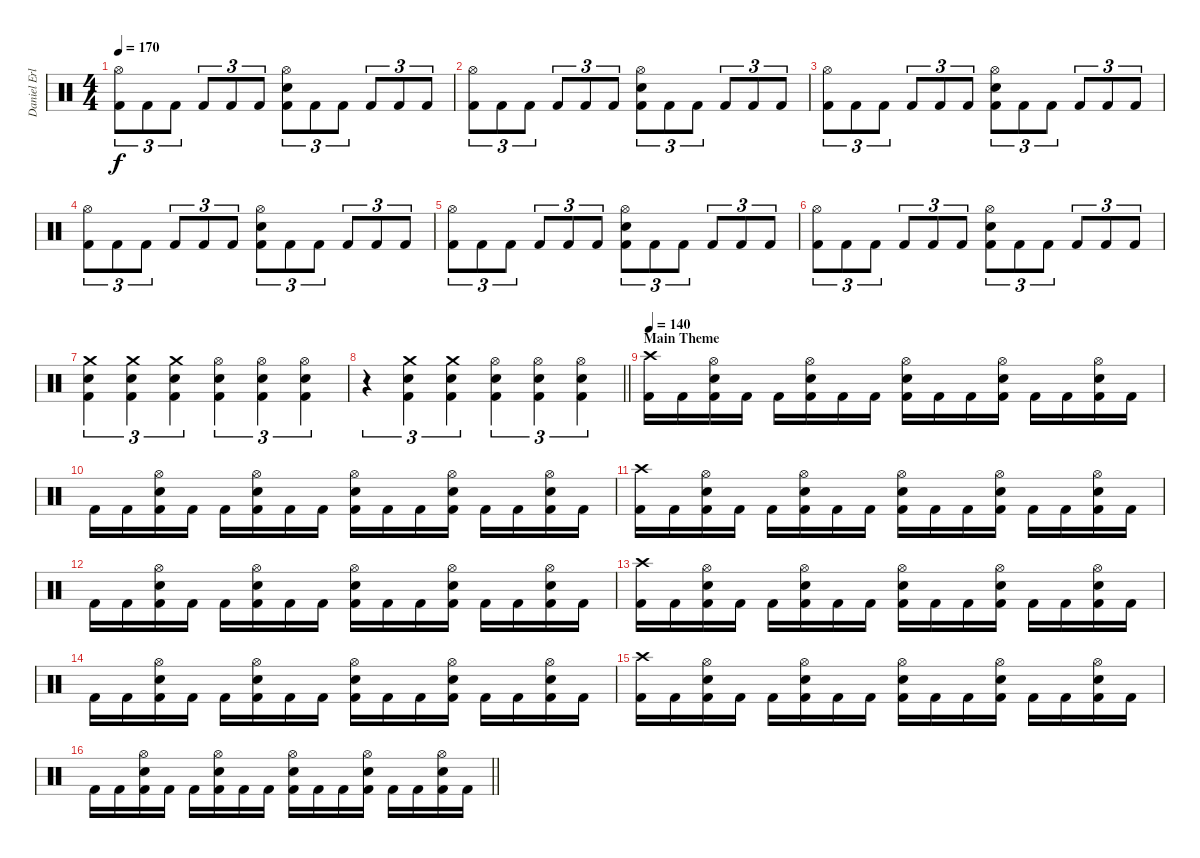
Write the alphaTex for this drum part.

\track ("Daniel Erlandsson" "Daniel Erl") {instrument percussion}
\staff {score}
\articulation defaults
\ts (4 4)
\tempo 170
\clef neutral
\ks c
("Hi-Hat (open)" "Kick (hit) 2").8{tu (3 2) dy f} "Kick (hit) 2".8{tu (3 2)} "Kick (hit) 2".8{tu (3 2)} "Kick (hit) 2".8{tu (3 2)} "Kick (hit) 2".8{tu (3 2)} "Kick (hit) 2".8{tu (3 2)} ("Hi-Hat (open)" "Snare (hit) 2" "Kick (hit) 2").8{tu (3 2)} "Kick (hit) 2".8{tu (3 2)} "Kick (hit) 2".8{tu (3 2)} "Kick (hit) 2".8{tu (3 2)} "Kick (hit) 2".8{tu (3 2)} "Kick (hit) 2".8{tu (3 2)} |
("Hi-Hat (open)" "Kick (hit) 2").8{tu (3 2)} "Kick (hit) 2".8{tu (3 2)} "Kick (hit) 2".8{tu (3 2)} "Kick (hit) 2".8{tu (3 2)} "Kick (hit) 2".8{tu (3 2)} "Kick (hit) 2".8{tu (3 2)} ("Hi-Hat (open)" "Snare (hit) 2" "Kick (hit) 2").8{tu (3 2)} "Kick (hit) 2".8{tu (3 2)} "Kick (hit) 2".8{tu (3 2)} "Kick (hit) 2".8{tu (3 2)} "Kick (hit) 2".8{tu (3 2)} "Kick (hit) 2".8{tu (3 2)} |
("Hi-Hat (open)" "Kick (hit) 2").8{tu (3 2)} "Kick (hit) 2".8{tu (3 2)} "Kick (hit) 2".8{tu (3 2)} "Kick (hit) 2".8{tu (3 2)} "Kick (hit) 2".8{tu (3 2)} "Kick (hit) 2".8{tu (3 2)} ("Hi-Hat (open)" "Snare (hit) 2" "Kick (hit) 2").8{tu (3 2)} "Kick (hit) 2".8{tu (3 2)} "Kick (hit) 2".8{tu (3 2)} "Kick (hit) 2".8{tu (3 2)} "Kick (hit) 2".8{tu (3 2)} "Kick (hit) 2".8{tu (3 2)} |
("Hi-Hat (open)" "Kick (hit) 2").8{tu (3 2)} "Kick (hit) 2".8{tu (3 2)} "Kick (hit) 2".8{tu (3 2)} "Kick (hit) 2".8{tu (3 2)} "Kick (hit) 2".8{tu (3 2)} "Kick (hit) 2".8{tu (3 2)} ("Hi-Hat (open)" "Snare (hit) 2" "Kick (hit) 2").8{tu (3 2)} "Kick (hit) 2".8{tu (3 2)} "Kick (hit) 2".8{tu (3 2)} "Kick (hit) 2".8{tu (3 2)} "Kick (hit) 2".8{tu (3 2)} "Kick (hit) 2".8{tu (3 2)} |
("Hi-Hat (open)" "Kick (hit) 2").8{tu (3 2)} "Kick (hit) 2".8{tu (3 2)} "Kick (hit) 2".8{tu (3 2)} "Kick (hit) 2".8{tu (3 2)} "Kick (hit) 2".8{tu (3 2)} "Kick (hit) 2".8{tu (3 2)} ("Hi-Hat (open)" "Snare (hit) 2" "Kick (hit) 2").8{tu (3 2)} "Kick (hit) 2".8{tu (3 2)} "Kick (hit) 2".8{tu (3 2)} "Kick (hit) 2".8{tu (3 2)} "Kick (hit) 2".8{tu (3 2)} "Kick (hit) 2".8{tu (3 2)} |
("Hi-Hat (open)" "Kick (hit) 2").8{tu (3 2)} "Kick (hit) 2".8{tu (3 2)} "Kick (hit) 2".8{tu (3 2)} "Kick (hit) 2".8{tu (3 2)} "Kick (hit) 2".8{tu (3 2)} "Kick (hit) 2".8{tu (3 2)} ("Hi-Hat (open)" "Snare (hit) 2" "Kick (hit) 2").8{tu (3 2)} "Kick (hit) 2".8{tu (3 2)} "Kick (hit) 2".8{tu (3 2)} "Kick (hit) 2".8{tu (3 2)} "Kick (hit) 2".8{tu (3 2)} "Kick (hit) 2".8{tu (3 2)} |
("Crash medium (hit)" "Snare (hit) 2" "Kick (hit) 2").4{tu (3 2)} ("Crash medium (hit)" "Snare (hit) 2" "Kick (hit) 2").4{tu (3 2)} ("Crash medium (hit)" "Snare (hit) 2" "Kick (hit) 2").4{tu (3 2)} ("Hi-Hat (open)" "Snare (hit) 2" "Kick (hit) 2").4{tu (3 2)} ("Hi-Hat (open)" "Snare (hit) 2" "Kick (hit) 2").4{tu (3 2)} ("Hi-Hat (open)" "Snare (hit) 2" "Kick (hit) 2").4{tu (3 2)} |
\barLineRight lightlight
r.4{tu (3 2)} ("Crash medium (hit)" "Snare (hit) 2" "Kick (hit) 2").4{tu (3 2)} ("Crash medium (hit)" "Snare (hit) 2" "Kick (hit) 2").4{tu (3 2)} ("Hi-Hat (open)" "Snare (hit) 2" "Kick (hit) 2").4{tu (3 2)} ("Hi-Hat (open)" "Snare (hit) 2" "Kick (hit) 2").4{tu (3 2)} ("Hi-Hat (open)" "Snare (hit) 2" "Kick (hit) 2").4{tu (3 2)} |
\section ("" "Main Theme")
\tempo 140
("Crash high (hit)" "Kick (hit) 2").16 "Kick (hit) 2".16 ("Hi-Hat (open)" "Snare (hit) 2" "Kick (hit) 2").16 "Kick (hit) 2".16 "Kick (hit) 2".16 ("Hi-Hat (open)" "Snare (hit) 2" "Kick (hit) 2").16 "Kick (hit) 2".16 "Kick (hit) 2".16 ("Hi-Hat (open)" "Snare (hit) 2" "Kick (hit) 2").16 "Kick (hit) 2".16 "Kick (hit) 2".16 ("Hi-Hat (open)" "Snare (hit) 2" "Kick (hit) 2").16 "Kick (hit) 2".16 "Kick (hit) 2".16 ("Hi-Hat (open)" "Snare (hit) 2" "Kick (hit) 2").16 "Kick (hit) 2".16 |
"Kick (hit) 2".16 "Kick (hit) 2".16 ("Hi-Hat (open)" "Snare (hit) 2" "Kick (hit) 2").16 "Kick (hit) 2".16 "Kick (hit) 2".16 ("Hi-Hat (open)" "Snare (hit) 2" "Kick (hit) 2").16 "Kick (hit) 2".16 "Kick (hit) 2".16 ("Hi-Hat (open)" "Snare (hit) 2" "Kick (hit) 2").16 "Kick (hit) 2".16 "Kick (hit) 2".16 ("Hi-Hat (open)" "Snare (hit) 2" "Kick (hit) 2").16 "Kick (hit) 2".16 "Kick (hit) 2".16 ("Hi-Hat (open)" "Snare (hit) 2" "Kick (hit) 2").16 "Kick (hit) 2".16 |
("Crash high (hit)" "Kick (hit) 2").16 "Kick (hit) 2".16 ("Hi-Hat (open)" "Snare (hit) 2" "Kick (hit) 2").16 "Kick (hit) 2".16 "Kick (hit) 2".16 ("Hi-Hat (open)" "Snare (hit) 2" "Kick (hit) 2").16 "Kick (hit) 2".16 "Kick (hit) 2".16 ("Hi-Hat (open)" "Snare (hit) 2" "Kick (hit) 2").16 "Kick (hit) 2".16 "Kick (hit) 2".16 ("Hi-Hat (open)" "Snare (hit) 2" "Kick (hit) 2").16 "Kick (hit) 2".16 "Kick (hit) 2".16 ("Hi-Hat (open)" "Snare (hit) 2" "Kick (hit) 2").16 "Kick (hit) 2".16 |
"Kick (hit) 2".16 "Kick (hit) 2".16 ("Hi-Hat (open)" "Snare (hit) 2" "Kick (hit) 2").16 "Kick (hit) 2".16 "Kick (hit) 2".16 ("Hi-Hat (open)" "Snare (hit) 2" "Kick (hit) 2").16 "Kick (hit) 2".16 "Kick (hit) 2".16 ("Hi-Hat (open)" "Snare (hit) 2" "Kick (hit) 2").16 "Kick (hit) 2".16 "Kick (hit) 2".16 ("Hi-Hat (open)" "Snare (hit) 2" "Kick (hit) 2").16 "Kick (hit) 2".16 "Kick (hit) 2".16 ("Hi-Hat (open)" "Snare (hit) 2" "Kick (hit) 2").16 "Kick (hit) 2".16 |
("Crash high (hit)" "Kick (hit) 2").16 "Kick (hit) 2".16 ("Hi-Hat (open)" "Snare (hit) 2" "Kick (hit) 2").16 "Kick (hit) 2".16 "Kick (hit) 2".16 ("Hi-Hat (open)" "Snare (hit) 2" "Kick (hit) 2").16 "Kick (hit) 2".16 "Kick (hit) 2".16 ("Hi-Hat (open)" "Snare (hit) 2" "Kick (hit) 2").16 "Kick (hit) 2".16 "Kick (hit) 2".16 ("Hi-Hat (open)" "Snare (hit) 2" "Kick (hit) 2").16 "Kick (hit) 2".16 "Kick (hit) 2".16 ("Hi-Hat (open)" "Snare (hit) 2" "Kick (hit) 2").16 "Kick (hit) 2".16 |
"Kick (hit) 2".16 "Kick (hit) 2".16 ("Hi-Hat (open)" "Snare (hit) 2" "Kick (hit) 2").16 "Kick (hit) 2".16 "Kick (hit) 2".16 ("Hi-Hat (open)" "Snare (hit) 2" "Kick (hit) 2").16 "Kick (hit) 2".16 "Kick (hit) 2".16 ("Hi-Hat (open)" "Snare (hit) 2" "Kick (hit) 2").16 "Kick (hit) 2".16 "Kick (hit) 2".16 ("Hi-Hat (open)" "Snare (hit) 2" "Kick (hit) 2").16 "Kick (hit) 2".16 "Kick (hit) 2".16 ("Hi-Hat (open)" "Snare (hit) 2" "Kick (hit) 2").16 "Kick (hit) 2".16 |
("Crash high (hit)" "Kick (hit) 2").16 "Kick (hit) 2".16 ("Hi-Hat (open)" "Snare (hit) 2" "Kick (hit) 2").16 "Kick (hit) 2".16 "Kick (hit) 2".16 ("Hi-Hat (open)" "Snare (hit) 2" "Kick (hit) 2").16 "Kick (hit) 2".16 "Kick (hit) 2".16 ("Hi-Hat (open)" "Snare (hit) 2" "Kick (hit) 2").16 "Kick (hit) 2".16 "Kick (hit) 2".16 ("Hi-Hat (open)" "Snare (hit) 2" "Kick (hit) 2").16 "Kick (hit) 2".16 "Kick (hit) 2".16 ("Hi-Hat (open)" "Snare (hit) 2" "Kick (hit) 2").16 "Kick (hit) 2".16 |
\barLineRight lightlight "Kick (hit) 2".16 "Kick (hit) 2".16
("Hi-Hat (open)" "Snare (hit) 2" "Kick (hit) 2").16 "Kick (hit) 2".16 "Kick (hit) 2".16 ("Hi-Hat (open)" "Snare (hit) 2" "Kick (hit) 2").16 "Kick (hit) 2".16 "Kick (hit) 2".16 ("Hi-Hat (open)" "Snare (hit) 2" "Kick (hit) 2").16 "Kick (hit) 2".16 "Kick (hit) 2".16 ("Hi-Hat (open)" "Snare (hit) 2" "Kick (hit) 2").16 "Kick (hit) 2".16 "Kick (hit) 2".16 ("Hi-Hat (open)" "Snare (hit) 2" "Kick (hit) 2").16 "Kick (hit) 2".16
